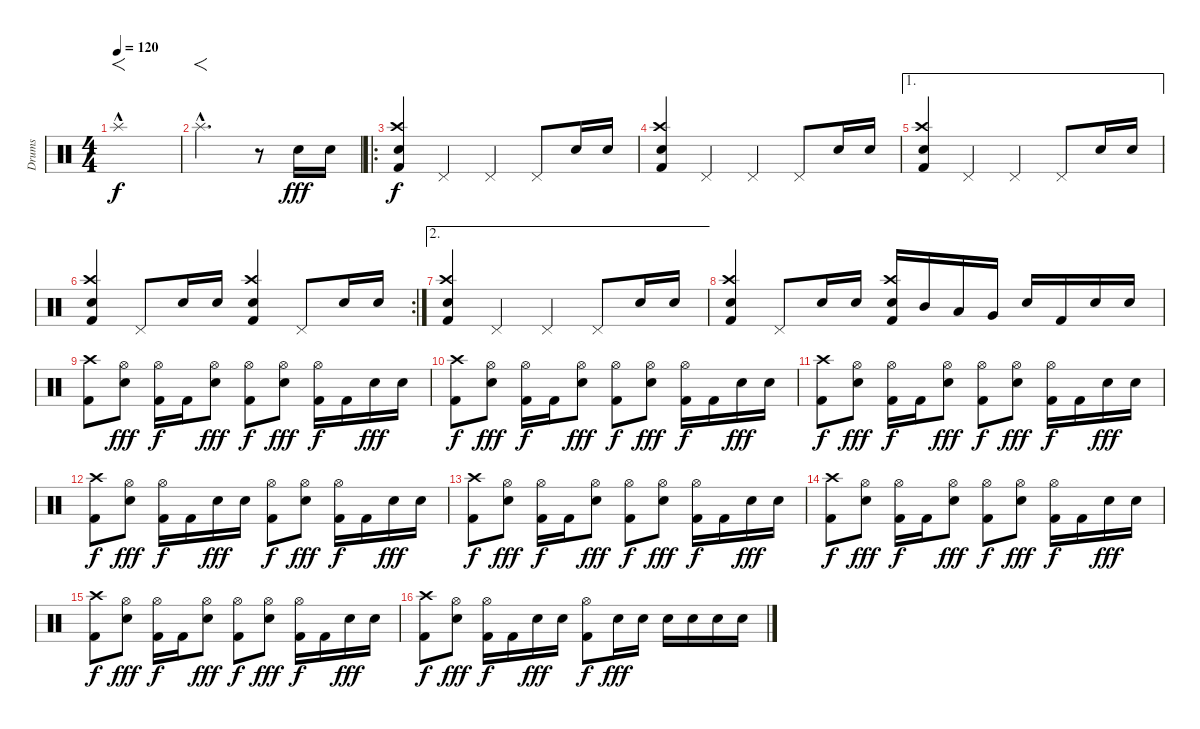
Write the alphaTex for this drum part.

\track ("Drums" "Drums") {instrument percussion}
\staff {score}
\articulation defaults
\ts (4 4)
\tempo 120
\clef neutral
\ks c "Splash (hit)"{hac}.1{f dy f}
|
"Splash (hit)"{hac}.2{f d} r.8 "Snare (hit) 2".16{dy fff} "Snare (hit) 2".16 |
\ro
("Crash high (hit)" "Snare (hit) 2" "Kick (hit) 2").4{dy f} "Pedal Hi-Hat (hit)".4 "Pedal Hi-Hat (hit)".4 "Pedal Hi-Hat (hit)".8 "Snare (hit) 2".16 "Snare (hit) 2".16 |
("Crash high (hit)" "Snare (hit) 2" "Kick (hit) 2").4 "Pedal Hi-Hat (hit)".4 "Pedal Hi-Hat (hit)".4 "Pedal Hi-Hat (hit)".8 "Snare (hit) 2".16 "Snare (hit) 2".16 |
\ae 1
("Crash high (hit)" "Snare (hit) 2" "Kick (hit) 2").4 "Pedal Hi-Hat (hit)".4 "Pedal Hi-Hat (hit)".4 "Pedal Hi-Hat (hit)".8 "Snare (hit) 2".16 "Snare (hit) 2".16 |
\rc 2
("Crash high (hit)" "Snare (hit) 2" "Kick (hit) 2").4 "Pedal Hi-Hat (hit)".8 "Snare (hit) 2".16 "Snare (hit) 2".16 ("Crash high (hit)" "Snare (hit) 2" "Kick (hit) 2").4 "Pedal Hi-Hat (hit)".8 "Snare (hit) 2".16 "Snare (hit) 2".16 |
\ae 2
("Crash high (hit)" "Snare (hit) 2" "Kick (hit) 2").4 "Pedal Hi-Hat (hit)".4 "Pedal Hi-Hat (hit)".4 "Pedal Hi-Hat (hit)".8 "Snare (hit) 2".16 "Snare (hit) 2".16 |
("Crash high (hit)" "Snare (hit) 2" "Kick (hit) 2").4 "Pedal Hi-Hat (hit)".8 "Snare (hit) 2".16 "Snare (hit) 2".16 ("Crash high (hit)" "Snare (hit) 2" "Kick (hit) 2").16 "Mid Tom (hit)".16 "Low Tom (hit)".16 "Very Low Tom (hit)".16 "Snare (hit) 2".16 "Kick (hit) 2".16 "Snare (hit) 2".16 "Snare (hit) 2".16 |
("Crash high (hit)" "Kick (hit) 2").8 ("Hi-Hat (open)" "Snare (hit) 2").8{dy fff} ("Hi-Hat (open)" "Kick (hit) 2").16{dy f} "Kick (hit) 2".16 ("Hi-Hat (open)" "Snare (hit) 2").8{dy fff} ("Hi-Hat (open)" "Kick (hit) 2").8{dy f} ("Hi-Hat (open)" "Snare (hit) 2").8{dy fff} ("Hi-Hat (open)" "Kick (hit) 2").16{dy f} "Kick (hit) 2".16 "Snare (hit) 2".16{dy fff} "Snare (hit) 2".16 |
("Crash high (hit)" "Kick (hit) 2").8{dy f} ("Hi-Hat (open)" "Snare (hit) 2").8{dy fff} ("Hi-Hat (open)" "Kick (hit) 2").16{dy f} "Kick (hit) 2".16 ("Hi-Hat (open)" "Snare (hit) 2").8{dy fff} ("Hi-Hat (open)" "Kick (hit) 2").8{dy f} ("Hi-Hat (open)" "Snare (hit) 2").8{dy fff} ("Hi-Hat (open)" "Kick (hit) 2").16{dy f} "Kick (hit) 2".16 "Snare (hit) 2".16{dy fff} "Snare (hit) 2".16 |
("Crash high (hit)" "Kick (hit) 2").8{dy f} ("Hi-Hat (open)" "Snare (hit) 2").8{dy fff} ("Hi-Hat (open)" "Kick (hit) 2").16{dy f} "Kick (hit) 2".16 ("Hi-Hat (open)" "Snare (hit) 2").8{dy fff} ("Hi-Hat (open)" "Kick (hit) 2").8{dy f} ("Hi-Hat (open)" "Snare (hit) 2").8{dy fff} ("Hi-Hat (open)" "Kick (hit) 2").16{dy f} "Kick (hit) 2".16 "Snare (hit) 2".16{dy fff} "Snare (hit) 2".16 |
("Crash high (hit)" "Kick (hit) 2").8{dy f} ("Hi-Hat (open)" "Snare (hit) 2").8{dy fff} ("Hi-Hat (open)" "Kick (hit) 2").16{dy f} "Kick (hit) 2".16 "Snare (hit) 2".16{dy fff} "Snare (hit) 2".16 ("Hi-Hat (open)" "Kick (hit) 2").8{dy f} ("Hi-Hat (open)" "Snare (hit) 2").8{dy fff} ("Hi-Hat (open)" "Kick (hit) 2").16{dy f} "Kick (hit) 2".16 "Snare (hit) 2".16{dy fff} "Snare (hit) 2".16 |
("Crash high (hit)" "Kick (hit) 2").8{dy f} ("Hi-Hat (open)" "Snare (hit) 2").8{dy fff} ("Hi-Hat (open)" "Kick (hit) 2").16{dy f} "Kick (hit) 2".16 ("Hi-Hat (open)" "Snare (hit) 2").8{dy fff} ("Hi-Hat (open)" "Kick (hit) 2").8{dy f} ("Hi-Hat (open)" "Snare (hit) 2").8{dy fff} ("Hi-Hat (open)" "Kick (hit) 2").16{dy f} "Kick (hit) 2".16 "Snare (hit) 2".16{dy fff} "Snare (hit) 2".16 |
("Crash high (hit)" "Kick (hit) 2").8{dy f} ("Hi-Hat (open)" "Snare (hit) 2").8{dy fff} ("Hi-Hat (open)" "Kick (hit) 2").16{dy f} "Kick (hit) 2".16 ("Hi-Hat (open)" "Snare (hit) 2").8{dy fff} ("Hi-Hat (open)" "Kick (hit) 2").8{dy f} ("Hi-Hat (open)" "Snare (hit) 2").8{dy fff} ("Hi-Hat (open)" "Kick (hit) 2").16{dy f} "Kick (hit) 2".16 "Snare (hit) 2".16{dy fff} "Snare (hit) 2".16 |
("Crash high (hit)" "Kick (hit) 2").8{dy f} ("Hi-Hat (open)" "Snare (hit) 2").8{dy fff} ("Hi-Hat (open)" "Kick (hit) 2").16{dy f} "Kick (hit) 2".16 ("Hi-Hat (open)" "Snare (hit) 2").8{dy fff} ("Hi-Hat (open)" "Kick (hit) 2").8{dy f} ("Hi-Hat (open)" "Snare (hit) 2").8{dy fff} ("Hi-Hat (open)" "Kick (hit) 2").16{dy f} "Kick (hit) 2".16 "Snare (hit) 2".16{dy fff} "Snare (hit) 2".16 |
("Crash high (hit)" "Kick (hit) 2").8{dy f} ("Hi-Hat (open)" "Snare (hit) 2").8{dy fff} ("Hi-Hat (open)" "Kick (hit) 2").16{dy f} "Kick (hit) 2".16 "Snare (hit) 2".16{dy fff} "Snare (hit) 2".16 ("Hi-Hat (open)" "Kick (hit) 2").8{dy f} "Snare (hit) 2".16{dy fff} "Snare (hit) 2".16 "Snare (hit) 2".16 "Snare (hit) 2".16 "Snare (hit) 2".16 "Snare (hit) 2".16
